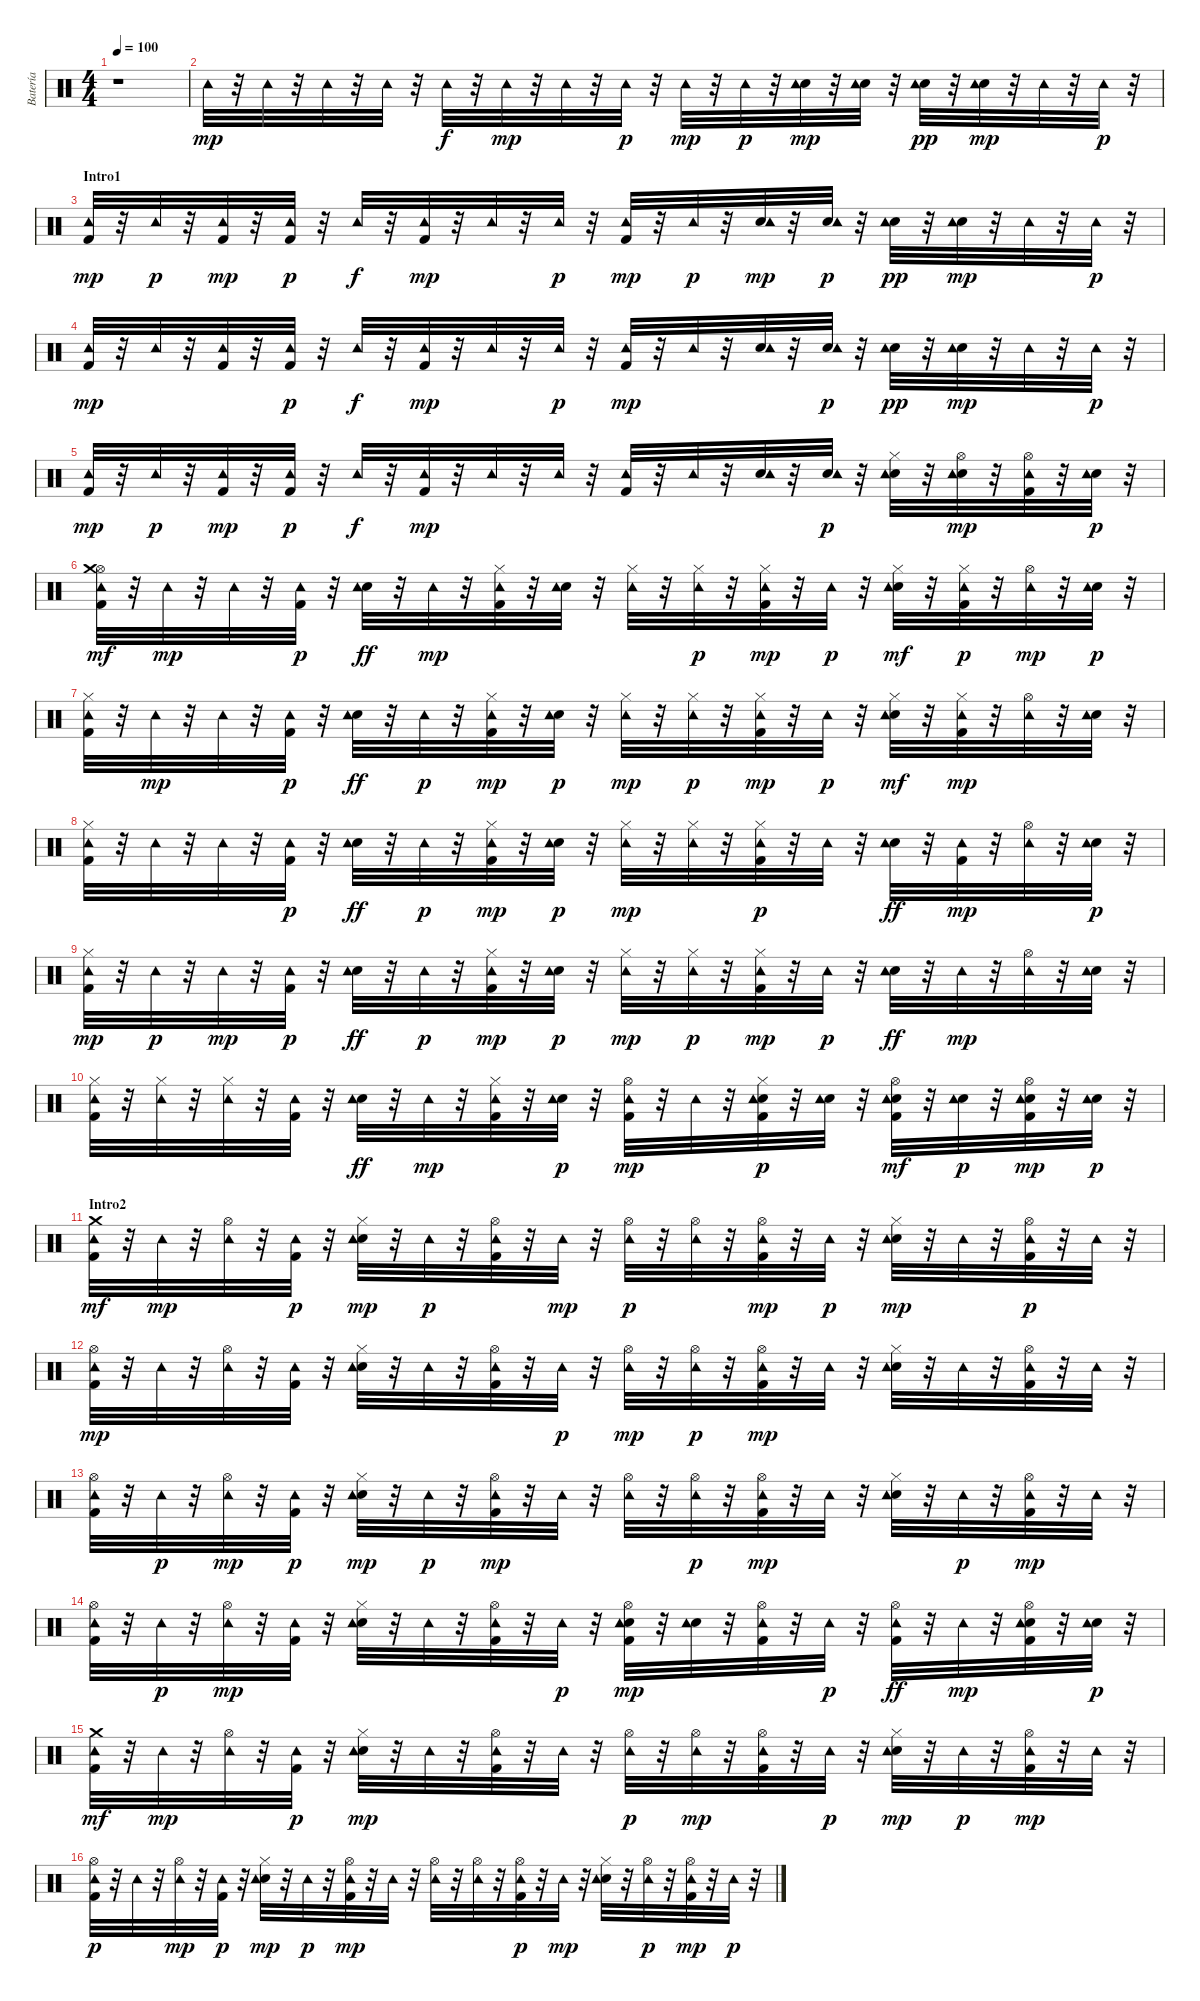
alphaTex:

\track ("Batería" "Batería") {instrument percussion}
\staff {score}
\articulation defaults
\ts (4 4)
\tempo 100
\clef neutral
\ks c
r.1{dy mp} |
"Tambourine (hit)".32 r.32 "Tambourine (hit)".32 r.32 "Tambourine (hit)".32 r.32 "Tambourine (hit)".32 r.32 "Tambourine (hit)".32{dy f} r.32 "Tambourine (hit)".32{dy mp} r.32 "Tambourine (hit)".32 r.32 "Tambourine (hit)".32{dy p} r.32 "Tambourine (hit)".32{dy mp} r.32 "Tambourine (hit)".32{dy p} r.32 ("Electric Snare (hit)" "Tambourine (hit)").32{dy mp} r.32 ("Electric Snare (hit)" "Tambourine (hit)").32 r.32 ("Electric Snare (hit)" "Tambourine (hit)").32{dy pp} r.32 ("Electric Snare (hit)" "Tambourine (hit)").32{dy mp} r.32 "Tambourine (hit)".32 r.32 "Tambourine (hit)".32{dy p} r.32 |
\section ("" "Intro1")
("Kick (hit) 2" "Tambourine (hit)").32{dy mp} r.32 "Tambourine (hit)".32{dy p} r.32 ("Kick (hit) 2" "Tambourine (hit)").32{dy mp} r.32 ("Kick (hit) 2" "Tambourine (hit)").32{dy p} r.32 "Tambourine (hit)".32{dy f} r.32 ("Kick (hit) 2" "Tambourine (hit)").32{dy mp} r.32 "Tambourine (hit)".32 r.32 "Tambourine (hit)".32{dy p} r.32 ("Kick (hit) 2" "Tambourine (hit)").32{dy mp} r.32 "Tambourine (hit)".32{dy p} r.32 ("Electric Snare (hit)" "Tambourine (hit)").32{dy mp} r.32 ("Electric Snare (hit)" "Tambourine (hit)").32{dy p} r.32 ("Electric Snare (hit)" "Tambourine (hit)").32{dy pp} r.32 ("Electric Snare (hit)" "Tambourine (hit)").32{dy mp} r.32 "Tambourine (hit)".32 r.32 "Tambourine (hit)".32{dy p} r.32 |
("Kick (hit) 2" "Tambourine (hit)").32{dy mp} r.32 "Tambourine (hit)".32 r.32 ("Kick (hit) 2" "Tambourine (hit)").32 r.32 ("Kick (hit) 2" "Tambourine (hit)").32{dy p} r.32 "Tambourine (hit)".32{dy f} r.32 ("Kick (hit) 2" "Tambourine (hit)").32{dy mp} r.32 "Tambourine (hit)".32 r.32 "Tambourine (hit)".32{dy p} r.32 ("Kick (hit) 2" "Tambourine (hit)").32{dy mp} r.32 "Tambourine (hit)".32 r.32 ("Electric Snare (hit)" "Tambourine (hit)").32 r.32 ("Electric Snare (hit)" "Tambourine (hit)").32{dy p} r.32 ("Electric Snare (hit)" "Tambourine (hit)").32{dy pp} r.32 ("Electric Snare (hit)" "Tambourine (hit)").32{dy mp} r.32 "Tambourine (hit)".32 r.32 "Tambourine (hit)".32{dy p} r.32 |
("Kick (hit) 2" "Tambourine (hit)").32{dy mp} r.32 "Tambourine (hit)".32{dy p} r.32 ("Kick (hit) 2" "Tambourine (hit)").32{dy mp} r.32 ("Kick (hit) 2" "Tambourine (hit)").32{dy p} r.32 "Tambourine (hit)".32{dy f} r.32 ("Kick (hit) 2" "Tambourine (hit)").32{dy mp} r.32 "Tambourine (hit)".32 r.32 "Tambourine (hit)".32 r.32 ("Kick (hit) 2" "Tambourine (hit)").32 r.32 "Tambourine (hit)".32 r.32 ("Electric Snare (hit)" "Tambourine (hit)").32 r.32 ("Electric Snare (hit)" "Tambourine (hit)").32{dy p} r.32 ("Electric Snare (hit)" "Hi-Hat (closed)" "Tambourine (hit)").32 r.32 ("Electric Snare (hit)" "Hi-Hat (open)" "Tambourine (hit)").32{dy mp} r.32 ("Kick (hit) 2" "Hi-Hat (open)" "Tambourine (hit)").32 r.32 ("Electric Snare (hit)" "Tambourine (hit)").32{dy p} r.32 |
("Kick (hit) 2" "Hi-Hat (open)" "Tambourine (hit)" "Crash medium (hit)").32{dy mf} r.32 "Tambourine (hit)".32{dy mp} r.32 "Tambourine (hit)".32 r.32 ("Kick (hit) 2" "Tambourine (hit)").32{dy p} r.32 ("Electric Snare (hit)" "Tambourine (hit)").32{dy ff} r.32 "Tambourine (hit)".32{dy mp} r.32 ("Kick (hit) 2" "Hi-Hat (closed)" "Tambourine (hit)").32 r.32 ("Electric Snare (hit)" "Tambourine (hit)").32 r.32 ("Hi-Hat (closed)" "Tambourine (hit)").32 r.32 ("Hi-Hat (closed)" "Tambourine (hit)").32{dy p} r.32 ("Kick (hit) 2" "Hi-Hat (closed)" "Tambourine (hit)").32{dy mp} r.32 "Tambourine (hit)".32{dy p} r.32 ("Electric Snare (hit)" "Hi-Hat (closed)" "Tambourine (hit)").32{dy mf} r.32 ("Kick (hit) 2" "Hi-Hat (closed)" "Tambourine (hit)").32{dy p} r.32 ("Hi-Hat (open)" "Tambourine (hit)").32{dy mp} r.32 ("Electric Snare (hit)" "Tambourine (hit)").32{dy p} r.32 |
("Kick (hit) 2" "Hi-Hat (closed)" "Tambourine (hit)").32 r.32 "Tambourine (hit)".32{dy mp} r.32 "Tambourine (hit)".32 r.32 ("Kick (hit) 2" "Tambourine (hit)").32{dy p} r.32 ("Electric Snare (hit)" "Tambourine (hit)").32{dy ff} r.32 "Tambourine (hit)".32{dy p} r.32 ("Kick (hit) 2" "Hi-Hat (closed)" "Tambourine (hit)").32{dy mp} r.32 ("Electric Snare (hit)" "Tambourine (hit)").32{dy p} r.32 ("Hi-Hat (closed)" "Tambourine (hit)").32{dy mp} r.32 ("Hi-Hat (closed)" "Tambourine (hit)").32{dy p} r.32 ("Kick (hit) 2" "Hi-Hat (closed)" "Tambourine (hit)").32{dy mp} r.32 "Tambourine (hit)".32{dy p} r.32 ("Electric Snare (hit)" "Hi-Hat (closed)" "Tambourine (hit)").32{dy mf} r.32 ("Kick (hit) 2" "Hi-Hat (closed)" "Tambourine (hit)").32{dy mp} r.32 ("Hi-Hat (open)" "Tambourine (hit)").32 r.32 ("Electric Snare (hit)" "Tambourine (hit)").32 r.32 |
("Kick (hit) 2" "Hi-Hat (closed)" "Tambourine (hit)").32 r.32 "Tambourine (hit)".32 r.32 "Tambourine (hit)".32 r.32 ("Kick (hit) 2" "Tambourine (hit)").32{dy p} r.32 ("Electric Snare (hit)" "Tambourine (hit)").32{dy ff} r.32 "Tambourine (hit)".32{dy p} r.32 ("Kick (hit) 2" "Hi-Hat (closed)" "Tambourine (hit)").32{dy mp} r.32 ("Electric Snare (hit)" "Tambourine (hit)").32{dy p} r.32 ("Hi-Hat (closed)" "Tambourine (hit)").32{dy mp} r.32 ("Hi-Hat (closed)" "Tambourine (hit)").32 r.32 ("Kick (hit) 2" "Hi-Hat (closed)" "Tambourine (hit)").32{dy p} r.32 "Tambourine (hit)".32 r.32 ("Electric Snare (hit)" "Tambourine (hit)").32{dy ff} r.32 ("Kick (hit) 2" "Tambourine (hit)").32{dy mp} r.32 ("Hi-Hat (open)" "Tambourine (hit)").32 r.32 ("Electric Snare (hit)" "Tambourine (hit)").32{dy p} r.32 |
("Kick (hit) 2" "Hi-Hat (closed)" "Tambourine (hit)").32{dy mp} r.32 "Tambourine (hit)".32{dy p} r.32 "Tambourine (hit)".32{dy mp} r.32 ("Kick (hit) 2" "Tambourine (hit)").32{dy p} r.32 ("Electric Snare (hit)" "Tambourine (hit)").32{dy ff} r.32 "Tambourine (hit)".32{dy p} r.32 ("Kick (hit) 2" "Hi-Hat (closed)" "Tambourine (hit)").32{dy mp} r.32 ("Electric Snare (hit)" "Tambourine (hit)").32{dy p} r.32 ("Hi-Hat (closed)" "Tambourine (hit)").32{dy mp} r.32 ("Hi-Hat (closed)" "Tambourine (hit)").32{dy p} r.32 ("Kick (hit) 2" "Hi-Hat (closed)" "Tambourine (hit)").32{dy mp} r.32 "Tambourine (hit)".32{dy p} r.32 ("Electric Snare (hit)" "Tambourine (hit)").32{dy ff} r.32 "Tambourine (hit)".32{dy mp} r.32 ("Hi-Hat (open)" "Tambourine (hit)").32 r.32 ("Electric Snare (hit)" "Tambourine (hit)").32 r.32 |
("Kick (hit) 2" "Hi-Hat (closed)" "Tambourine (hit)").32 r.32 ("Hi-Hat (closed)" "Tambourine (hit)").32 r.32 ("Hi-Hat (closed)" "Tambourine (hit)").32 r.32 ("Kick (hit) 2" "Tambourine (hit)").32 r.32 ("Electric Snare (hit)" "Tambourine (hit)").32{dy ff} r.32 "Tambourine (hit)".32{dy mp} r.32 ("Kick (hit) 2" "Hi-Hat (closed)" "Tambourine (hit)").32 r.32 ("Electric Snare (hit)" "Tambourine (hit)").32{dy p} r.32 ("Kick (hit) 2" "Hi-Hat (open)" "Tambourine (hit)").32{dy mp} r.32 "Tambourine (hit)".32 r.32 ("Kick (hit) 2" "Electric Snare (hit)" "Hi-Hat (closed)" "Tambourine (hit)").32{dy p} r.32 ("Electric Snare (hit)" "Tambourine (hit)").32 r.32 ("Kick (hit) 2" "Electric Snare (hit)" "Hi-Hat (open)" "Tambourine (hit)").32{dy mf} r.32 ("Electric Snare (hit)" "Tambourine (hit)").32{dy p} r.32 ("Kick (hit) 2" "Electric Snare (hit)" "Hi-Hat (open)" "Tambourine (hit)").32{dy mp} r.32 ("Electric Snare (hit)" "Tambourine (hit)").32{dy p} r.32 |
\section ("" "Intro2")
("Kick (hit) 2" "Tambourine (hit)" "Crash medium (hit)").32{dy mf} r.32 "Tambourine (hit)".32{dy mp} r.32 ("Hi-Hat (open)" "Tambourine (hit)").32 r.32 ("Kick (hit) 2" "Tambourine (hit)").32{dy p} r.32 ("Electric Snare (hit)" "Hi-Hat (closed)" "Tambourine (hit)").32{dy mp} r.32 "Tambourine (hit)".32{dy p} r.32 ("Kick (hit) 2" "Hi-Hat (open)" "Tambourine (hit)").32 r.32 "Tambourine (hit)".32{dy mp} r.32 ("Hi-Hat (open)" "Tambourine (hit)").32{dy p} r.32 ("Hi-Hat (open)" "Tambourine (hit)").32 r.32 ("Kick (hit) 2" "Hi-Hat (open)" "Tambourine (hit)").32{dy mp} r.32 "Tambourine (hit)".32{dy p} r.32 ("Electric Snare (hit)" "Hi-Hat (closed)" "Tambourine (hit)").32{dy mp} r.32 "Tambourine (hit)".32 r.32 ("Kick (hit) 2" "Hi-Hat (open)" "Tambourine (hit)").32{dy p} r.32 "Tambourine (hit)".32 r.32 |
("Kick (hit) 2" "Hi-Hat (open)" "Tambourine (hit)").32{dy mp} r.32 "Tambourine (hit)".32 r.32 ("Hi-Hat (open)" "Tambourine (hit)").32 r.32 ("Kick (hit) 2" "Tambourine (hit)").32 r.32 ("Electric Snare (hit)" "Hi-Hat (closed)" "Tambourine (hit)").32 r.32 "Tambourine (hit)".32 r.32 ("Kick (hit) 2" "Hi-Hat (open)" "Tambourine (hit)").32 r.32 "Tambourine (hit)".32{dy p} r.32 ("Hi-Hat (open)" "Tambourine (hit)").32{dy mp} r.32 ("Hi-Hat (open)" "Tambourine (hit)").32{dy p} r.32 ("Kick (hit) 2" "Hi-Hat (open)" "Tambourine (hit)").32{dy mp} r.32 "Tambourine (hit)".32 r.32 ("Electric Snare (hit)" "Hi-Hat (closed)" "Tambourine (hit)").32 r.32 "Tambourine (hit)".32 r.32 ("Kick (hit) 2" "Hi-Hat (open)" "Tambourine (hit)").32 r.32 "Tambourine (hit)".32 r.32 |
("Kick (hit) 2" "Hi-Hat (open)" "Tambourine (hit)").32 r.32 "Tambourine (hit)".32{dy p} r.32 ("Hi-Hat (open)" "Tambourine (hit)").32{dy mp} r.32 ("Kick (hit) 2" "Tambourine (hit)").32{dy p} r.32 ("Electric Snare (hit)" "Hi-Hat (closed)" "Tambourine (hit)").32{dy mp} r.32 "Tambourine (hit)".32{dy p} r.32 ("Kick (hit) 2" "Hi-Hat (open)" "Tambourine (hit)").32{dy mp} r.32 "Tambourine (hit)".32 r.32 ("Hi-Hat (open)" "Tambourine (hit)").32 r.32 ("Hi-Hat (open)" "Tambourine (hit)").32{dy p} r.32 ("Kick (hit) 2" "Hi-Hat (open)" "Tambourine (hit)").32{dy mp} r.32 "Tambourine (hit)".32 r.32 ("Electric Snare (hit)" "Hi-Hat (closed)" "Tambourine (hit)").32 r.32 "Tambourine (hit)".32{dy p} r.32 ("Kick (hit) 2" "Hi-Hat (open)" "Tambourine (hit)").32{dy mp} r.32 "Tambourine (hit)".32 r.32 |
("Kick (hit) 2" "Hi-Hat (open)" "Tambourine (hit)").32 r.32 "Tambourine (hit)".32{dy p} r.32 ("Hi-Hat (open)" "Tambourine (hit)").32{dy mp} r.32 ("Kick (hit) 2" "Tambourine (hit)").32 r.32 ("Electric Snare (hit)" "Hi-Hat (closed)" "Tambourine (hit)").32 r.32 "Tambourine (hit)".32 r.32 ("Kick (hit) 2" "Hi-Hat (open)" "Tambourine (hit)").32 r.32 "Tambourine (hit)".32{dy p} r.32 ("Kick (hit) 2" "Electric Snare (hit)" "Hi-Hat (open)" "Tambourine (hit)").32{dy mp} r.32 ("Electric Snare (hit)" "Tambourine (hit)").32 r.32 ("Kick (hit) 2" "Hi-Hat (open)" "Tambourine (hit)").32 r.32 "Tambourine (hit)".32{dy p} r.32 ("Kick (hit) 2" "Hi-Hat (open)" "Tambourine (hit)").32{dy ff} r.32 "Tambourine (hit)".32{dy mp} r.32 ("Kick (hit) 2" "Electric Snare (hit)" "Hi-Hat (open)" "Tambourine (hit)").32 r.32 ("Electric Snare (hit)" "Tambourine (hit)").32{dy p} r.32 |
("Kick (hit) 2" "Tambourine (hit)" "Crash medium (hit)").32{dy mf} r.32 "Tambourine (hit)".32{dy mp} r.32 ("Hi-Hat (open)" "Tambourine (hit)").32 r.32 ("Kick (hit) 2" "Tambourine (hit)").32{dy p} r.32 ("Electric Snare (hit)" "Hi-Hat (closed)" "Tambourine (hit)").32{dy mp} r.32 "Tambourine (hit)".32 r.32 ("Kick (hit) 2" "Hi-Hat (open)" "Tambourine (hit)").32 r.32 "Tambourine (hit)".32 r.32 ("Hi-Hat (open)" "Tambourine (hit)").32{dy p} r.32 ("Hi-Hat (open)" "Tambourine (hit)").32{dy mp} r.32 ("Kick (hit) 2" "Hi-Hat (open)" "Tambourine (hit)").32 r.32 "Tambourine (hit)".32{dy p} r.32 ("Electric Snare (hit)" "Hi-Hat (closed)" "Tambourine (hit)").32{dy mp} r.32 "Tambourine (hit)".32{dy p} r.32 ("Kick (hit) 2" "Hi-Hat (open)" "Tambourine (hit)").32{dy mp} r.32 "Tambourine (hit)".32 r.32 |
("Kick (hit) 2" "Hi-Hat (open)" "Tambourine (hit)").32{dy p} r.32 "Tambourine (hit)".32 r.32 ("Hi-Hat (open)" "Tambourine (hit)").32{dy mp} r.32 ("Kick (hit) 2" "Tambourine (hit)").32{dy p} r.32 ("Electric Snare (hit)" "Hi-Hat (closed)" "Tambourine (hit)").32{dy mp} r.32 "Tambourine (hit)".32{dy p} r.32 ("Kick (hit) 2" "Hi-Hat (open)" "Tambourine (hit)").32{dy mp} r.32 "Tambourine (hit)".32 r.32 ("Hi-Hat (open)" "Tambourine (hit)").32 r.32 ("Hi-Hat (open)" "Tambourine (hit)").32 r.32 ("Kick (hit) 2" "Hi-Hat (open)" "Tambourine (hit)").32{dy p} r.32 "Tambourine (hit)".32{dy mp} r.32 ("Electric Snare (hit)" "Hi-Hat (closed)" "Tambourine (hit)").32 r.32 ("Hi-Hat (open)" "Tambourine (hit)").32{dy p} r.32 ("Kick (hit) 2" "Hi-Hat (open)" "Tambourine (hit)").32{dy mp} r.32 "Tambourine (hit)".32{dy p} r.32
